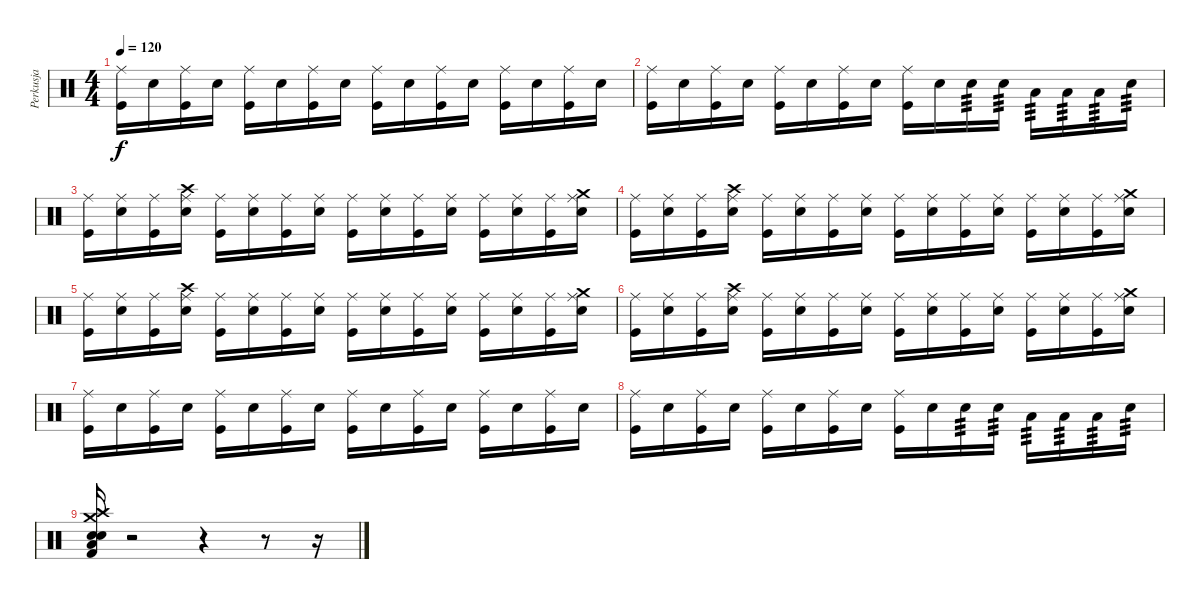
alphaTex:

\track ("Perkusja" "Perkusja") {instrument percussion}
\staff {score}
\articulation defaults
\ts (4 4)
\tempo 120
\clef neutral
\ks c
("Ride (middle)" "Kick (hit)").16{dy f} "Snare (hit) 2".16 ("Ride (middle)" "Kick (hit)").16 "Snare (hit) 2".16 ("Ride (middle)" "Kick (hit)").16 "Snare (hit) 2".16 ("Ride (middle)" "Kick (hit)").16 "Snare (hit) 2".16 ("Ride (middle)" "Kick (hit)").16 "Snare (hit) 2".16 ("Ride (middle)" "Kick (hit)").16 "Snare (hit) 2".16 ("Ride (middle)" "Kick (hit)").16 "Snare (hit) 2".16 ("Ride (middle)" "Kick (hit)").16 "Snare (hit) 2".16 |
("Ride (middle)" "Kick (hit)").16 "Snare (hit) 2".16 ("Ride (middle)" "Kick (hit)").16 "Snare (hit) 2".16 ("Ride (middle)" "Kick (hit)").16 "Snare (hit) 2".16 ("Ride (middle)" "Kick (hit)").16 "Snare (hit) 2".16 ("Ride (middle)" "Kick (hit)").16 "Snare (hit) 2".16 "Electric Snare (hit)".16{tp 3} "Electric Snare (hit)".16{tp 3} "Low Floor Tom (hit)".16{tp 3} "Low Floor Tom (hit)".16{tp 3} "Low Tom (hit)".16{tp 3} "Snare (hit) 2".16{tp 3} |
("Ride (middle)" "Kick (hit)").16 ("Ride (middle)" "Electric Snare (hit)").16 ("Ride (middle)" "Kick (hit)").16 ("Crash high (hit)" "Ride (middle)" "Electric Snare (hit)").16 ("Ride (middle)" "Kick (hit)").16 ("Ride (middle)" "Electric Snare (hit)").16 ("Ride (middle)" "Kick (hit)").16 ("Ride (middle)" "Electric Snare (hit)").16 ("Ride (middle)" "Kick (hit)").16 ("Ride (middle)" "Electric Snare (hit)").16 ("Ride (middle)" "Kick (hit)").16 ("Ride (middle)" "Electric Snare (hit)").16 ("Ride (middle)" "Kick (hit)").16 ("Ride (middle)" "Electric Snare (hit)").16 ("Ride (middle)" "Kick (hit)").16 ("Crash medium (hit)" "Ride (middle)" "Electric Snare (hit)").16 |
("Ride (middle)" "Kick (hit)").16 ("Ride (middle)" "Electric Snare (hit)").16 ("Ride (middle)" "Kick (hit)").16 ("Crash high (hit)" "Ride (middle)" "Electric Snare (hit)").16 ("Ride (middle)" "Kick (hit)").16 ("Ride (middle)" "Electric Snare (hit)").16 ("Ride (middle)" "Kick (hit)").16 ("Ride (middle)" "Electric Snare (hit)").16 ("Ride (middle)" "Kick (hit)").16 ("Ride (middle)" "Electric Snare (hit)").16 ("Ride (middle)" "Kick (hit)").16 ("Ride (middle)" "Electric Snare (hit)").16 ("Ride (middle)" "Kick (hit)").16 ("Ride (middle)" "Electric Snare (hit)").16 ("Ride (middle)" "Kick (hit)").16 ("Crash medium (hit)" "Ride (middle)" "Electric Snare (hit)").16 |
("Ride (middle)" "Kick (hit)").16 ("Ride (middle)" "Electric Snare (hit)").16 ("Ride (middle)" "Kick (hit)").16 ("Crash high (hit)" "Ride (middle)" "Electric Snare (hit)").16 ("Ride (middle)" "Kick (hit)").16 ("Ride (middle)" "Electric Snare (hit)").16 ("Ride (middle)" "Kick (hit)").16 ("Ride (middle)" "Electric Snare (hit)").16 ("Ride (middle)" "Kick (hit)").16 ("Ride (middle)" "Electric Snare (hit)").16 ("Ride (middle)" "Kick (hit)").16 ("Ride (middle)" "Electric Snare (hit)").16 ("Ride (middle)" "Kick (hit)").16 ("Ride (middle)" "Electric Snare (hit)").16 ("Ride (middle)" "Kick (hit)").16 ("Crash medium (hit)" "Ride (middle)" "Electric Snare (hit)").16 |
("Ride (middle)" "Kick (hit)").16 ("Ride (middle)" "Electric Snare (hit)").16 ("Ride (middle)" "Kick (hit)").16 ("Crash high (hit)" "Ride (middle)" "Electric Snare (hit)").16 ("Ride (middle)" "Kick (hit)").16 ("Ride (middle)" "Electric Snare (hit)").16 ("Ride (middle)" "Kick (hit)").16 ("Ride (middle)" "Electric Snare (hit)").16 ("Ride (middle)" "Kick (hit)").16 ("Ride (middle)" "Electric Snare (hit)").16 ("Ride (middle)" "Kick (hit)").16 ("Ride (middle)" "Electric Snare (hit)").16 ("Ride (middle)" "Kick (hit)").16 ("Ride (middle)" "Electric Snare (hit)").16 ("Ride (middle)" "Kick (hit)").16 ("Crash medium (hit)" "Ride (middle)" "Electric Snare (hit)").16 |
("Ride (middle)" "Kick (hit)").16 "Snare (hit) 2".16 ("Ride (middle)" "Kick (hit)").16 "Snare (hit) 2".16 ("Ride (middle)" "Kick (hit)").16 "Snare (hit) 2".16 ("Ride (middle)" "Kick (hit)").16 "Snare (hit) 2".16 ("Ride (middle)" "Kick (hit)").16 "Snare (hit) 2".16 ("Ride (middle)" "Kick (hit)").16 "Snare (hit) 2".16 ("Ride (middle)" "Kick (hit)").16 "Snare (hit) 2".16 ("Ride (middle)" "Kick (hit)").16 "Snare (hit) 2".16 |
("Ride (middle)" "Kick (hit)").16 "Snare (hit) 2".16 ("Ride (middle)" "Kick (hit)").16 "Snare (hit) 2".16 ("Ride (middle)" "Kick (hit)").16 "Snare (hit) 2".16 ("Ride (middle)" "Kick (hit)").16 "Snare (hit) 2".16 ("Ride (middle)" "Kick (hit)").16 "Snare (hit) 2".16 "Electric Snare (hit)".16{tp 3} "Electric Snare (hit)".16{tp 3} "Low Floor Tom (hit)".16{tp 3} "Low Floor Tom (hit)".16{tp 3} "Low Tom (hit)".16{tp 3} "Snare (hit) 2".16{tp 3} |
("Kick (hit) 2" "Snare (hit) 2" "Electric Snare (hit)" "Low Tom (hit)" "Crash high (hit)" "Crash medium (hit)").16 r.2 r.4 r.8 r.16
